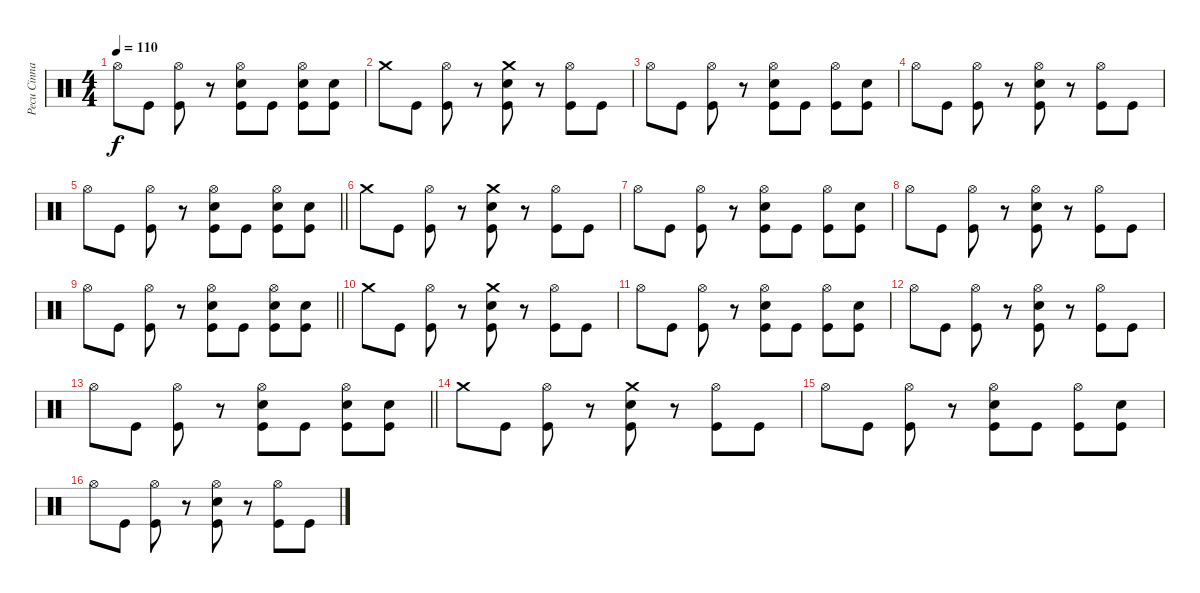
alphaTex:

\track ("Pecu Cinnari" "Pecu Cinna") {instrument percussion}
\staff {score}
\articulation defaults
\ts (4 4)
\tempo 110
\clef neutral
\ks c "Hi-Hat (open)".8{dy f} "Kick (hit)".8
("Hi-Hat (open)" "Kick (hit)").8 r.8 ("Hi-Hat (open)" "Snare (hit) 2" "Kick (hit)").8 "Kick (hit)".8 ("Hi-Hat (open)" "Snare (hit) 2" "Kick (hit)").8 ("Snare (hit) 2" "Kick (hit)").8 |
"Crash medium (hit)".8 "Kick (hit)".8 ("Hi-Hat (open)" "Kick (hit)").8 r.8 ("Crash medium (hit)" "Snare (hit) 2" "Kick (hit)").8 r.8 ("Hi-Hat (open)" "Kick (hit)").8 "Kick (hit)".8 |
"Hi-Hat (open)".8 "Kick (hit)".8 ("Hi-Hat (open)" "Kick (hit)").8 r.8 ("Hi-Hat (open)" "Snare (hit) 2" "Kick (hit)").8 "Kick (hit)".8 ("Hi-Hat (open)" "Kick (hit)").8 ("Snare (hit) 2" "Kick (hit)").8 |
"Hi-Hat (open)".8 "Kick (hit)".8 ("Hi-Hat (open)" "Kick (hit)").8 r.8 ("Hi-Hat (open)" "Snare (hit) 2" "Kick (hit)").8 r.8 ("Hi-Hat (open)" "Kick (hit)").8 "Kick (hit)".8 |
\barLineRight lightlight "Hi-Hat (open)".8 "Kick (hit)".8
("Hi-Hat (open)" "Kick (hit)").8 r.8 ("Hi-Hat (open)" "Snare (hit) 2" "Kick (hit)").8 "Kick (hit)".8 ("Hi-Hat (open)" "Snare (hit) 2" "Kick (hit)").8 ("Snare (hit) 2" "Kick (hit)").8 |
\section ("" "")
"Crash medium (hit)".8 "Kick (hit)".8 ("Hi-Hat (open)" "Kick (hit)").8 r.8 ("Crash medium (hit)" "Snare (hit) 2" "Kick (hit)").8 r.8 ("Hi-Hat (open)" "Kick (hit)").8 "Kick (hit)".8 |
"Hi-Hat (open)".8 "Kick (hit)".8 ("Hi-Hat (open)" "Kick (hit)").8 r.8 ("Hi-Hat (open)" "Snare (hit) 2" "Kick (hit)").8 "Kick (hit)".8 ("Hi-Hat (open)" "Kick (hit)").8 ("Snare (hit) 2" "Kick (hit)").8 |
"Hi-Hat (open)".8 "Kick (hit)".8 ("Hi-Hat (open)" "Kick (hit)").8 r.8 ("Hi-Hat (open)" "Snare (hit) 2" "Kick (hit)").8 r.8 ("Hi-Hat (open)" "Kick (hit)").8 "Kick (hit)".8 |
\barLineRight lightlight "Hi-Hat (open)".8 "Kick (hit)".8
("Hi-Hat (open)" "Kick (hit)").8 r.8 ("Hi-Hat (open)" "Snare (hit) 2" "Kick (hit)").8 "Kick (hit)".8 ("Hi-Hat (open)" "Snare (hit) 2" "Kick (hit)").8 ("Snare (hit) 2" "Kick (hit)").8 |
\section ("" "")
"Crash medium (hit)".8 "Kick (hit)".8 ("Hi-Hat (open)" "Kick (hit)").8 r.8 ("Crash medium (hit)" "Snare (hit) 2" "Kick (hit)").8 r.8 ("Hi-Hat (open)" "Kick (hit)").8 "Kick (hit)".8 |
"Hi-Hat (open)".8 "Kick (hit)".8 ("Hi-Hat (open)" "Kick (hit)").8 r.8 ("Hi-Hat (open)" "Snare (hit) 2" "Kick (hit)").8 "Kick (hit)".8 ("Hi-Hat (open)" "Kick (hit)").8 ("Snare (hit) 2" "Kick (hit)").8 |
"Hi-Hat (open)".8 "Kick (hit)".8 ("Hi-Hat (open)" "Kick (hit)").8 r.8 ("Hi-Hat (open)" "Snare (hit) 2" "Kick (hit)").8 r.8 ("Hi-Hat (open)" "Kick (hit)").8 "Kick (hit)".8 |
\barLineRight lightlight "Hi-Hat (open)".8 "Kick (hit)".8
("Hi-Hat (open)" "Kick (hit)").8 r.8 ("Hi-Hat (open)" "Snare (hit) 2" "Kick (hit)").8 "Kick (hit)".8 ("Hi-Hat (open)" "Snare (hit) 2" "Kick (hit)").8 ("Snare (hit) 2" "Kick (hit)").8 |
\section ("" "")
"Crash medium (hit)".8 "Kick (hit)".8 ("Hi-Hat (open)" "Kick (hit)").8 r.8 ("Crash medium (hit)" "Snare (hit) 2" "Kick (hit)").8 r.8 ("Hi-Hat (open)" "Kick (hit)").8 "Kick (hit)".8 |
"Hi-Hat (open)".8 "Kick (hit)".8 ("Hi-Hat (open)" "Kick (hit)").8 r.8 ("Hi-Hat (open)" "Snare (hit) 2" "Kick (hit)").8 "Kick (hit)".8 ("Hi-Hat (open)" "Kick (hit)").8 ("Snare (hit) 2" "Kick (hit)").8 |
"Hi-Hat (open)".8 "Kick (hit)".8 ("Hi-Hat (open)" "Kick (hit)").8 r.8 ("Hi-Hat (open)" "Snare (hit) 2" "Kick (hit)").8 r.8 ("Hi-Hat (open)" "Kick (hit)").8 "Kick (hit)".8
